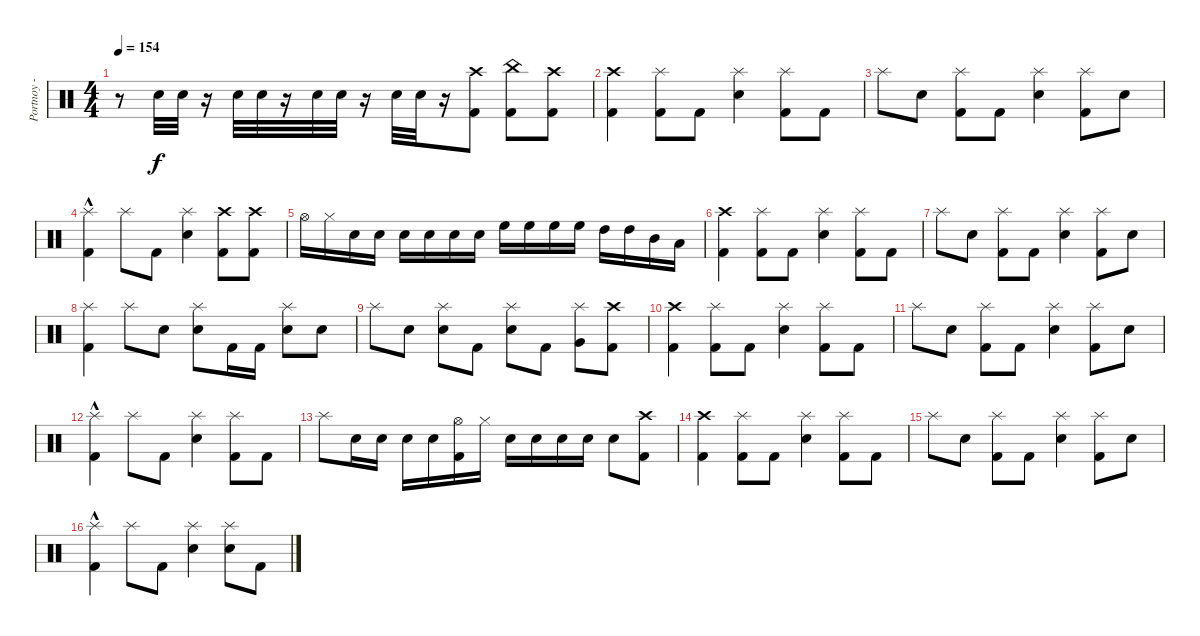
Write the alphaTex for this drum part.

\track ("Portnoy - Drums" "Portnoy - ") {instrument percussion}
\staff {score}
\articulation defaults
\ts (4 4)
\tempo 154
\clef neutral
\ks c
r.8{dy f} "Electric Snare (hit)".32 "Electric Snare (hit)".32 r.16 "Electric Snare (hit)".32 "Electric Snare (hit)".32 r.16 "Electric Snare (hit)".32 "Electric Snare (hit)".32 r.16 "Electric Snare (hit)".32 "Electric Snare (hit)".32 r.16 ("Kick (hit) 2" "Crash high (hit)").8 ("Kick (hit) 2" "China (hit)").8 ("Kick (hit) 2" "Crash high (hit)").8 |
("Kick (hit) 2" "Crash high (hit)").4 ("Kick (hit) 2" "Splash (hit)").8 "Kick (hit) 2".8 ("Electric Snare (hit)" "Splash (hit)").4 ("Kick (hit) 2" "Splash (hit)").8 "Kick (hit) 2".8 |
"Splash (hit)".8 "Electric Snare (hit)".8 ("Kick (hit) 2" "Splash (hit)").8 "Kick (hit) 2".8 ("Electric Snare (hit)" "Splash (hit)").4 ("Kick (hit) 2" "Splash (hit)").8 "Electric Snare (hit)".8 |
("Kick (hit) 2"{hac} "Splash (hit)").4 "Splash (hit)".8 "Kick (hit) 2".8 ("Electric Snare (hit)" "Splash (hit)").4 ("Kick (hit) 2" "Crash high (hit)").8 ("Kick (hit) 2" "Crash high (hit)").8 |
"Hi-Hat (open)".16 "Hi-Hat (closed)".16 "Electric Snare (hit)".16 "Electric Snare (hit)".16 "Electric Snare (hit)".16 "Electric Snare (hit)".16 "Electric Snare (hit)".16 "Electric Snare (hit)".16 "High Floor Tom (hit)".16 "High Floor Tom (hit)".16 "High Floor Tom (hit)".16 "High Floor Tom (hit)".16 "High Tom (hit)".16 "High Tom (hit)".16 "Mid Tom (hit)".16 "Low Tom (hit)".16 |
("Kick (hit) 2" "Crash high (hit)").4 ("Kick (hit) 2" "Splash (hit)").8 "Kick (hit) 2".8 ("Electric Snare (hit)" "Splash (hit)").4 ("Kick (hit) 2" "Splash (hit)").8 "Kick (hit) 2".8 |
"Splash (hit)".8 "Electric Snare (hit)".8 ("Kick (hit) 2" "Splash (hit)").8 "Kick (hit) 2".8 ("Electric Snare (hit)" "Splash (hit)").4 ("Kick (hit) 2" "Splash (hit)").8 "Electric Snare (hit)".8 |
("Kick (hit) 2" "Splash (hit)").4 "Splash (hit)".8 "Electric Snare (hit)".8 ("Electric Snare (hit)" "Splash (hit)").8 "Kick (hit) 2".16 "Kick (hit) 2".16 ("Electric Snare (hit)" "Splash (hit)").8 "Electric Snare (hit)".8 |
"Splash (hit)".8 "Electric Snare (hit)".8 ("Electric Snare (hit)" "Splash (hit)").8 "Kick (hit) 2".8 ("Electric Snare (hit)" "Splash (hit)").8 "Kick (hit) 2".8 ("Very Low Tom (hit)" "Splash (hit)").8 ("Kick (hit) 2" "Crash high (hit)").8 |
("Crash high (hit)" "Kick (hit) 2").4 ("Kick (hit) 2" "Splash (hit)").8 "Kick (hit) 2".8 ("Electric Snare (hit)" "Splash (hit)").4 ("Kick (hit) 2" "Splash (hit)").8 "Kick (hit) 2".8 |
"Splash (hit)".8 "Electric Snare (hit)".8 ("Kick (hit) 2" "Splash (hit)").8 "Kick (hit) 2".8 ("Electric Snare (hit)" "Splash (hit)").4 ("Kick (hit) 2" "Splash (hit)").8 "Electric Snare (hit)".8 |
("Kick (hit) 2"{hac} "Splash (hit)").4 "Splash (hit)".8 "Kick (hit) 2".8 ("Electric Snare (hit)" "Splash (hit)").4 ("Kick (hit) 2" "Splash (hit)").8 "Kick (hit) 2".8 |
"Splash (hit)".8 "Electric Snare (hit)".16 "Electric Snare (hit)".16 "Electric Snare (hit)".16 "Electric Snare (hit)".16 ("Hi-Hat (open)" "Kick (hit) 2").16 "Hi-Hat (closed)".16 "Electric Snare (hit)".16 "Electric Snare (hit)".16 "Electric Snare (hit)".16 "Electric Snare (hit)".16 "Electric Snare (hit)".8 ("Kick (hit) 2" "Crash high (hit)").8 |
("Kick (hit) 2" "Crash high (hit)").4 ("Kick (hit) 2" "Splash (hit)").8 "Kick (hit) 2".8 ("Electric Snare (hit)" "Splash (hit)").4 ("Kick (hit) 2" "Splash (hit)").8 "Kick (hit) 2".8 |
"Splash (hit)".8 "Electric Snare (hit)".8 ("Kick (hit) 2" "Splash (hit)").8 "Kick (hit) 2".8 ("Electric Snare (hit)" "Splash (hit)").4 ("Kick (hit) 2" "Splash (hit)").8 "Electric Snare (hit)".8 |
("Kick (hit) 2"{hac} "Splash (hit)").4 "Splash (hit)".8 "Kick (hit) 2".8 ("Electric Snare (hit)" "Splash (hit)").4 ("Electric Snare (hit)" "Splash (hit)").8 "Kick (hit) 2".8
